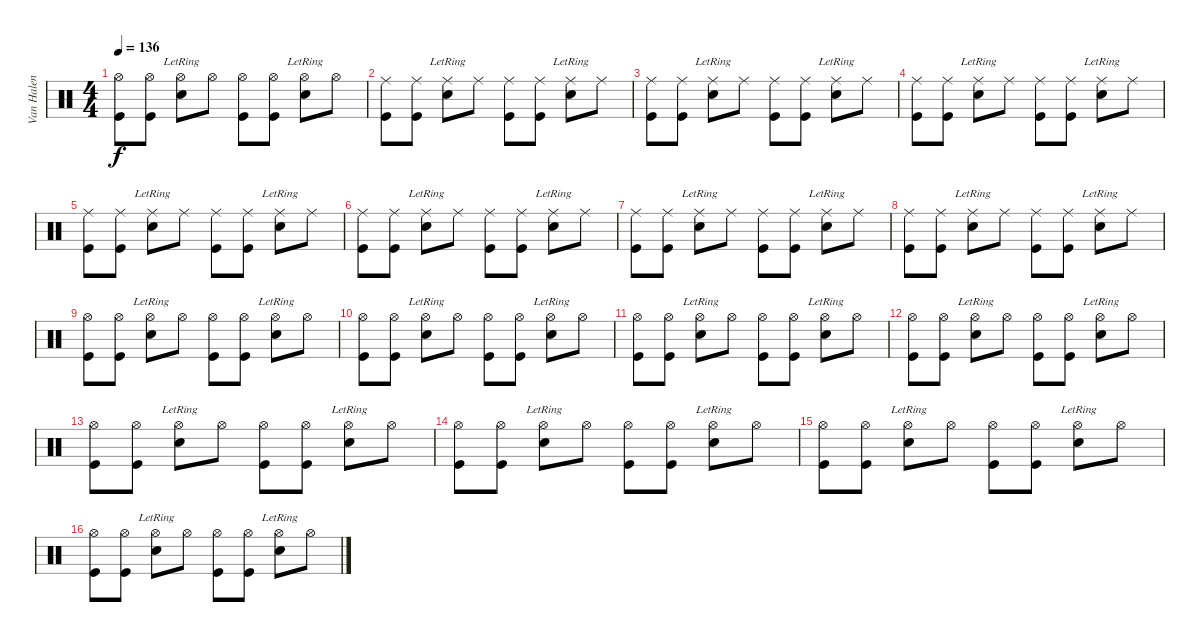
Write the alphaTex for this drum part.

\track ("Van Halen" "Van Halen") {instrument percussion}
\staff {score}
\articulation defaults
\ts (4 4)
\tempo 136
\clef neutral
\ks c
("Kick (hit)" "Hi-Hat (open)").8{dy f} ("Kick (hit)" "Hi-Hat (open)").8 ("Snare (hit) 2"{lr} "Hi-Hat (open)").8 "Hi-Hat (open)".8 ("Kick (hit)" "Hi-Hat (open)").8 ("Kick (hit)" "Hi-Hat (open)").8 ("Snare (hit) 2"{lr} "Hi-Hat (open)").8 "Hi-Hat (open)".8 |
("Kick (hit)" "Ride (middle)").8 ("Kick (hit)" "Ride (middle)").8 ("Snare (hit) 2"{lr} "Ride (middle)").8 "Ride (middle)".8 ("Kick (hit)" "Ride (middle)").8 ("Kick (hit)" "Ride (middle)").8 ("Snare (hit) 2"{lr} "Ride (middle)").8 "Ride (middle)".8 |
("Kick (hit)" "Ride (middle)").8 ("Kick (hit)" "Ride (middle)").8 ("Snare (hit) 2"{lr} "Ride (middle)").8 "Ride (middle)".8 ("Kick (hit)" "Ride (middle)").8 ("Kick (hit)" "Ride (middle)").8 ("Snare (hit) 2"{lr} "Ride (middle)").8 "Ride (middle)".8 |
("Kick (hit)" "Ride (middle)").8 ("Kick (hit)" "Ride (middle)").8 ("Snare (hit) 2"{lr} "Ride (middle)").8 "Ride (middle)".8 ("Kick (hit)" "Ride (middle)").8 ("Kick (hit)" "Ride (middle)").8 ("Snare (hit) 2"{lr} "Ride (middle)").8 "Ride (middle)".8 |
("Kick (hit)" "Ride (middle)").8 ("Kick (hit)" "Ride (middle)").8 ("Snare (hit) 2"{lr} "Ride (middle)").8 "Ride (middle)".8 ("Kick (hit)" "Ride (middle)").8 ("Kick (hit)" "Ride (middle)").8 ("Snare (hit) 2"{lr} "Ride (middle)").8 "Ride (middle)".8 |
("Kick (hit)" "Ride (middle)").8 ("Kick (hit)" "Ride (middle)").8 ("Snare (hit) 2"{lr} "Ride (middle)").8 "Ride (middle)".8 ("Kick (hit)" "Ride (middle)").8 ("Kick (hit)" "Ride (middle)").8 ("Snare (hit) 2"{lr} "Ride (middle)").8 "Ride (middle)".8 |
("Kick (hit)" "Ride (middle)").8 ("Kick (hit)" "Ride (middle)").8 ("Snare (hit) 2"{lr} "Ride (middle)").8 "Ride (middle)".8 ("Kick (hit)" "Ride (middle)").8 ("Kick (hit)" "Ride (middle)").8 ("Snare (hit) 2"{lr} "Ride (middle)").8 "Ride (middle)".8 |
("Kick (hit)" "Ride (middle)").8 ("Kick (hit)" "Ride (middle)").8 ("Snare (hit) 2"{lr} "Ride (middle)").8 "Ride (middle)".8 ("Kick (hit)" "Ride (middle)").8 ("Kick (hit)" "Ride (middle)").8 ("Snare (hit) 2"{lr} "Ride (middle)").8 "Ride (middle)".8 |
("Kick (hit)" "Hi-Hat (open)").8 ("Kick (hit)" "Hi-Hat (open)").8 ("Snare (hit) 2"{lr} "Hi-Hat (open)").8 "Hi-Hat (open)".8 ("Kick (hit)" "Hi-Hat (open)").8 ("Kick (hit)" "Hi-Hat (open)").8 ("Snare (hit) 2"{lr} "Hi-Hat (open)").8 "Hi-Hat (open)".8 |
("Kick (hit)" "Hi-Hat (open)").8 ("Kick (hit)" "Hi-Hat (open)").8 ("Snare (hit) 2"{lr} "Hi-Hat (open)").8 "Hi-Hat (open)".8 ("Kick (hit)" "Hi-Hat (open)").8 ("Kick (hit)" "Hi-Hat (open)").8 ("Snare (hit) 2"{lr} "Hi-Hat (open)").8 "Hi-Hat (open)".8 |
("Kick (hit)" "Hi-Hat (open)").8 ("Kick (hit)" "Hi-Hat (open)").8 ("Snare (hit) 2"{lr} "Hi-Hat (open)").8 "Hi-Hat (open)".8 ("Kick (hit)" "Hi-Hat (open)").8 ("Kick (hit)" "Hi-Hat (open)").8 ("Snare (hit) 2"{lr} "Hi-Hat (open)").8 "Hi-Hat (open)".8 |
("Kick (hit)" "Hi-Hat (open)").8 ("Kick (hit)" "Hi-Hat (open)").8 ("Snare (hit) 2"{lr} "Hi-Hat (open)").8 "Hi-Hat (open)".8 ("Kick (hit)" "Hi-Hat (open)").8 ("Kick (hit)" "Hi-Hat (open)").8 ("Snare (hit) 2"{lr} "Hi-Hat (open)").8 "Hi-Hat (open)".8 |
("Kick (hit)" "Hi-Hat (open)").8 ("Kick (hit)" "Hi-Hat (open)").8 ("Snare (hit) 2"{lr} "Hi-Hat (open)").8 "Hi-Hat (open)".8 ("Kick (hit)" "Hi-Hat (open)").8 ("Kick (hit)" "Hi-Hat (open)").8 ("Snare (hit) 2"{lr} "Hi-Hat (open)").8 "Hi-Hat (open)".8 |
("Kick (hit)" "Hi-Hat (open)").8 ("Kick (hit)" "Hi-Hat (open)").8 ("Snare (hit) 2"{lr} "Hi-Hat (open)").8 "Hi-Hat (open)".8 ("Kick (hit)" "Hi-Hat (open)").8 ("Kick (hit)" "Hi-Hat (open)").8 ("Snare (hit) 2"{lr} "Hi-Hat (open)").8 "Hi-Hat (open)".8 |
("Kick (hit)" "Hi-Hat (open)").8 ("Kick (hit)" "Hi-Hat (open)").8 ("Snare (hit) 2"{lr} "Hi-Hat (open)").8 "Hi-Hat (open)".8 ("Kick (hit)" "Hi-Hat (open)").8 ("Kick (hit)" "Hi-Hat (open)").8 ("Snare (hit) 2"{lr} "Hi-Hat (open)").8 "Hi-Hat (open)".8 |
("Kick (hit)" "Hi-Hat (open)").8 ("Kick (hit)" "Hi-Hat (open)").8 ("Snare (hit) 2"{lr} "Hi-Hat (open)").8 "Hi-Hat (open)".8 ("Kick (hit)" "Hi-Hat (open)").8 ("Kick (hit)" "Hi-Hat (open)").8 ("Snare (hit) 2"{lr} "Hi-Hat (open)").8 "Hi-Hat (open)".8
